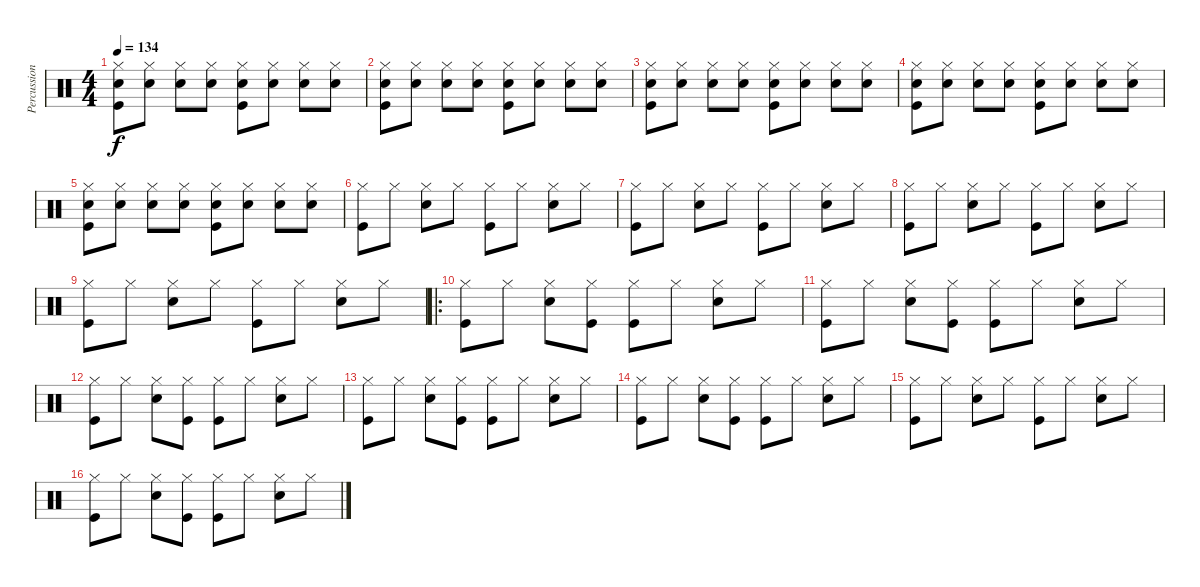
\track ("Percussion (DK 24)" "Percussion") {instrument percussion}
\staff {score}
\articulation defaults
\ts (4 4)
\tempo 134
\clef neutral
\ks c
("Hi-Hat (closed)" "Snare (hit) 2" "Kick (hit)").8{dy f volume 4} ("Hi-Hat (closed)" "Snare (hit) 2").8 ("Hi-Hat (closed)" "Snare (hit) 2").8 ("Hi-Hat (closed)" "Snare (hit) 2").8 ("Hi-Hat (closed)" "Snare (hit) 2" "Kick (hit)").8 ("Hi-Hat (closed)" "Snare (hit) 2").8 ("Hi-Hat (closed)" "Snare (hit) 2").8 ("Hi-Hat (closed)" "Snare (hit) 2").8 |
("Hi-Hat (closed)" "Snare (hit) 2" "Kick (hit)").8{volume 6} ("Hi-Hat (closed)" "Snare (hit) 2").8 ("Hi-Hat (closed)" "Snare (hit) 2").8 ("Hi-Hat (closed)" "Snare (hit) 2").8 ("Hi-Hat (closed)" "Snare (hit) 2" "Kick (hit)").8 ("Hi-Hat (closed)" "Snare (hit) 2").8 ("Hi-Hat (closed)" "Snare (hit) 2").8 ("Hi-Hat (closed)" "Snare (hit) 2").8 |
("Hi-Hat (closed)" "Snare (hit) 2" "Kick (hit)").8{volume 8} ("Hi-Hat (closed)" "Snare (hit) 2").8 ("Hi-Hat (closed)" "Snare (hit) 2").8 ("Hi-Hat (closed)" "Snare (hit) 2").8 ("Hi-Hat (closed)" "Snare (hit) 2" "Kick (hit)").8 ("Hi-Hat (closed)" "Snare (hit) 2").8 ("Hi-Hat (closed)" "Snare (hit) 2").8 ("Hi-Hat (closed)" "Snare (hit) 2").8 |
("Hi-Hat (closed)" "Snare (hit) 2" "Kick (hit)").8{volume 9} ("Hi-Hat (closed)" "Snare (hit) 2").8 ("Hi-Hat (closed)" "Snare (hit) 2").8 ("Hi-Hat (closed)" "Snare (hit) 2").8 ("Hi-Hat (closed)" "Snare (hit) 2" "Kick (hit)").8 ("Hi-Hat (closed)" "Snare (hit) 2").8 ("Hi-Hat (closed)" "Snare (hit) 2").8 ("Hi-Hat (closed)" "Snare (hit) 2").8 |
("Hi-Hat (closed)" "Snare (hit) 2" "Kick (hit)").8{volume 10} ("Hi-Hat (closed)" "Snare (hit) 2").8 ("Hi-Hat (closed)" "Snare (hit) 2").8 ("Hi-Hat (closed)" "Snare (hit) 2").8 ("Hi-Hat (closed)" "Snare (hit) 2" "Kick (hit)").8 ("Hi-Hat (closed)" "Snare (hit) 2").8 ("Hi-Hat (closed)" "Snare (hit) 2").8 ("Hi-Hat (closed)" "Snare (hit) 2").8 |
("Hi-Hat (closed)" "Kick (hit)").8{volume 11} "Hi-Hat (closed)".8 ("Hi-Hat (closed)" "Snare (hit) 2").8 "Hi-Hat (closed)".8 ("Hi-Hat (closed)" "Kick (hit)").8 "Hi-Hat (closed)".8 ("Hi-Hat (closed)" "Snare (hit) 2").8 "Hi-Hat (closed)".8 |
("Hi-Hat (closed)" "Kick (hit)").8 "Hi-Hat (closed)".8 ("Hi-Hat (closed)" "Snare (hit) 2").8 "Hi-Hat (closed)".8 ("Hi-Hat (closed)" "Kick (hit)").8 "Hi-Hat (closed)".8 ("Hi-Hat (closed)" "Snare (hit) 2").8 "Hi-Hat (closed)".8 |
("Hi-Hat (closed)" "Kick (hit)").8 "Hi-Hat (closed)".8 ("Hi-Hat (closed)" "Snare (hit) 2").8 "Hi-Hat (closed)".8 ("Hi-Hat (closed)" "Kick (hit)").8 "Hi-Hat (closed)".8 ("Hi-Hat (closed)" "Snare (hit) 2").8 "Hi-Hat (closed)".8 |
("Hi-Hat (closed)" "Kick (hit)").8 "Hi-Hat (closed)".8 ("Hi-Hat (closed)" "Snare (hit) 2").8 "Hi-Hat (closed)".8 ("Hi-Hat (closed)" "Kick (hit)").8 "Hi-Hat (closed)".8 ("Hi-Hat (closed)" "Snare (hit) 2").8 "Hi-Hat (closed)".8 |
\ro
("Hi-Hat (closed)" "Kick (hit)").8 "Hi-Hat (closed)".8 ("Hi-Hat (closed)" "Snare (hit) 2").8 ("Hi-Hat (closed)" "Kick (hit)").8 ("Hi-Hat (closed)" "Kick (hit)").8 "Hi-Hat (closed)".8 ("Hi-Hat (closed)" "Snare (hit) 2").8 "Hi-Hat (closed)".8 |
("Hi-Hat (closed)" "Kick (hit)").8 "Hi-Hat (closed)".8 ("Hi-Hat (closed)" "Snare (hit) 2").8 ("Hi-Hat (closed)" "Kick (hit)").8 ("Hi-Hat (closed)" "Kick (hit)").8 "Hi-Hat (closed)".8 ("Hi-Hat (closed)" "Snare (hit) 2").8 "Hi-Hat (closed)".8 |
("Hi-Hat (closed)" "Kick (hit)").8 "Hi-Hat (closed)".8 ("Hi-Hat (closed)" "Snare (hit) 2").8 ("Hi-Hat (closed)" "Kick (hit)").8 ("Hi-Hat (closed)" "Kick (hit)").8 "Hi-Hat (closed)".8 ("Hi-Hat (closed)" "Snare (hit) 2").8 "Hi-Hat (closed)".8 |
("Hi-Hat (closed)" "Kick (hit)").8 "Hi-Hat (closed)".8 ("Hi-Hat (closed)" "Snare (hit) 2").8 ("Hi-Hat (closed)" "Kick (hit)").8 ("Hi-Hat (closed)" "Kick (hit)").8 "Hi-Hat (closed)".8 ("Hi-Hat (closed)" "Snare (hit) 2").8 "Hi-Hat (closed)".8 |
("Hi-Hat (closed)" "Kick (hit)").8 "Hi-Hat (closed)".8 ("Hi-Hat (closed)" "Snare (hit) 2").8 ("Hi-Hat (closed)" "Kick (hit)").8 ("Hi-Hat (closed)" "Kick (hit)").8 "Hi-Hat (closed)".8 ("Hi-Hat (closed)" "Snare (hit) 2").8 "Hi-Hat (closed)".8 |
("Hi-Hat (closed)" "Kick (hit)").8 "Hi-Hat (closed)".8 ("Hi-Hat (closed)" "Snare (hit) 2").8 "Hi-Hat (closed)".8 ("Hi-Hat (closed)" "Kick (hit)").8 "Hi-Hat (closed)".8 ("Hi-Hat (closed)" "Snare (hit) 2").8 "Hi-Hat (closed)".8 |
("Hi-Hat (closed)" "Kick (hit)").8 "Hi-Hat (closed)".8 ("Hi-Hat (closed)" "Snare (hit) 2").8 ("Hi-Hat (closed)" "Kick (hit)").8 ("Hi-Hat (closed)" "Kick (hit)").8 "Hi-Hat (closed)".8 ("Hi-Hat (closed)" "Snare (hit) 2").8 "Hi-Hat (closed)".8
